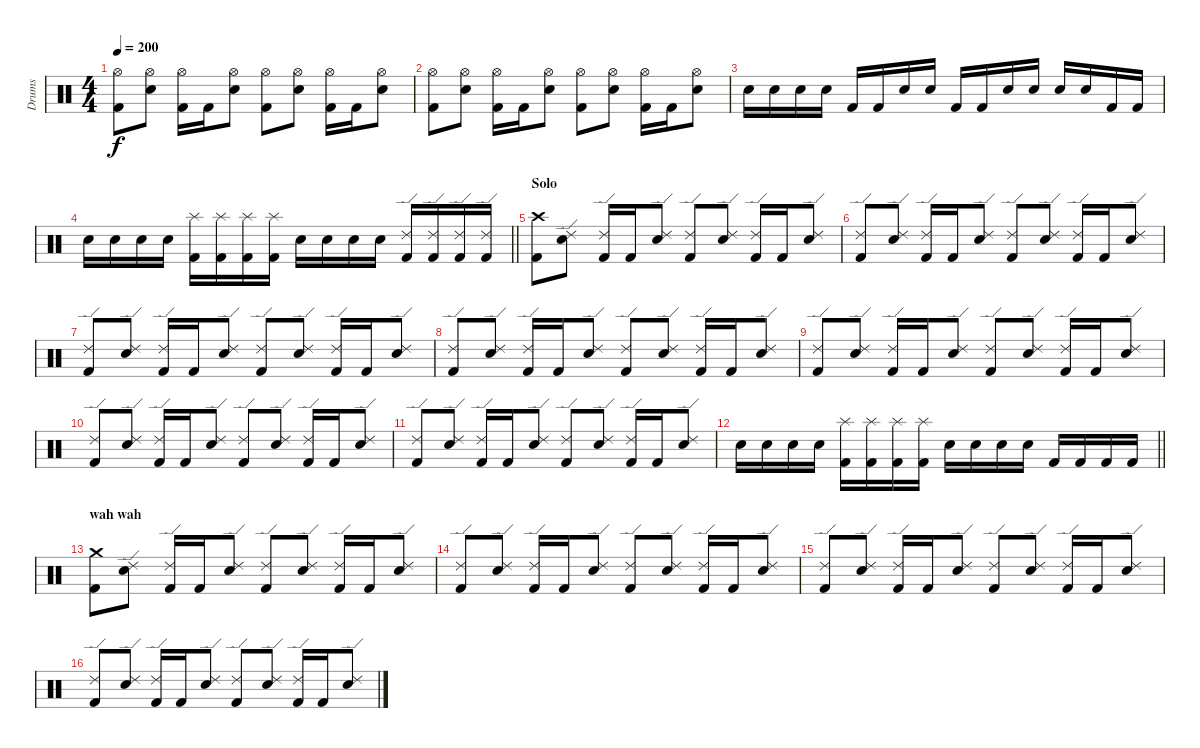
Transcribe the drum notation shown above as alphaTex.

\track ("Drums" "Drums") {instrument percussion}
\staff {score}
\articulation defaults
\ts (4 4)
\tempo 200
\clef neutral
\ks c
("Kick (hit) 2" "Hi-Hat (open)").8{dy f} ("Snare (hit) 2" "Hi-Hat (open)").8 ("Kick (hit) 2" "Hi-Hat (open)").16 "Kick (hit) 2".16 ("Snare (hit) 2" "Hi-Hat (open)").8 ("Kick (hit) 2" "Hi-Hat (open)").8 ("Snare (hit) 2" "Hi-Hat (open)").8 ("Kick (hit) 2" "Hi-Hat (open)").16 "Kick (hit) 2".16 ("Snare (hit) 2" "Hi-Hat (open)").8 |
("Kick (hit) 2" "Hi-Hat (open)").8 ("Snare (hit) 2" "Hi-Hat (open)").8 ("Kick (hit) 2" "Hi-Hat (open)").16 "Kick (hit) 2".16 ("Snare (hit) 2" "Hi-Hat (open)").8 ("Kick (hit) 2" "Hi-Hat (open)").8 ("Snare (hit) 2" "Hi-Hat (open)").8 ("Kick (hit) 2" "Hi-Hat (open)").16 "Kick (hit) 2".16 ("Snare (hit) 2" "Hi-Hat (open)").8 |
"Snare (hit) 2".16 "Snare (hit) 2".16 "Snare (hit) 2".16 "Snare (hit) 2".16 "Kick (hit) 2".16 "Kick (hit) 2".16 "Snare (hit) 2".16 "Snare (hit) 2".16 "Kick (hit) 2".16 "Kick (hit) 2".16 "Snare (hit) 2".16 "Snare (hit) 2".16 "Snare (hit) 2".16 "Snare (hit) 2".16 "Kick (hit) 2".16 "Kick (hit) 2".16 |
\barLineRight lightlight "Snare (hit) 2".16 "Snare (hit) 2".16 "Snare (hit) 2".16 "Snare (hit) 2".16
("Kick (hit) 2" "Splash (hit)").16 ("Kick (hit) 2" "Splash (hit)").16 ("Kick (hit) 2" "Splash (hit)").16 ("Kick (hit) 2" "Splash (hit)").16 "Snare (hit) 2".16 "Snare (hit) 2".16 "Snare (hit) 2".16 "Snare (hit) 2".16 ("Kick (hit) 2" "Ride (edge) 2").16 ("Kick (hit) 2" "Ride (edge) 2").16 ("Kick (hit) 2" "Ride (edge) 2").16 ("Kick (hit) 2" "Ride (edge) 2").16 |
\section ("" "Solo")
("Kick (hit) 2" "Crash high (hit)").8 ("Snare (hit) 2" "Ride (edge) 2").8 ("Kick (hit) 2" "Ride (edge) 2").16 "Kick (hit) 2".16 ("Snare (hit) 2" "Ride (edge) 2").8 ("Kick (hit) 2" "Ride (edge) 2").8 ("Snare (hit) 2" "Ride (edge) 2").8 ("Kick (hit) 2" "Ride (edge) 2").16 "Kick (hit) 2".16 ("Snare (hit) 2" "Ride (edge) 2").8 |
("Kick (hit) 2" "Ride (edge) 2").8 ("Snare (hit) 2" "Ride (edge) 2").8 ("Kick (hit) 2" "Ride (edge) 2").16 "Kick (hit) 2".16 ("Snare (hit) 2" "Ride (edge) 2").8 ("Kick (hit) 2" "Ride (edge) 2").8 ("Snare (hit) 2" "Ride (edge) 2").8 ("Kick (hit) 2" "Ride (edge) 2").16 "Kick (hit) 2".16 ("Snare (hit) 2" "Ride (edge) 2").8 |
("Kick (hit) 2" "Ride (edge) 2").8 ("Snare (hit) 2" "Ride (edge) 2").8 ("Kick (hit) 2" "Ride (edge) 2").16 "Kick (hit) 2".16 ("Snare (hit) 2" "Ride (edge) 2").8 ("Kick (hit) 2" "Ride (edge) 2").8 ("Snare (hit) 2" "Ride (edge) 2").8 ("Kick (hit) 2" "Ride (edge) 2").16 "Kick (hit) 2".16 ("Snare (hit) 2" "Ride (edge) 2").8 |
("Kick (hit) 2" "Ride (edge) 2").8 ("Snare (hit) 2" "Ride (edge) 2").8 ("Kick (hit) 2" "Ride (edge) 2").16 "Kick (hit) 2".16 ("Snare (hit) 2" "Ride (edge) 2").8 ("Kick (hit) 2" "Ride (edge) 2").8 ("Snare (hit) 2" "Ride (edge) 2").8 ("Kick (hit) 2" "Ride (edge) 2").16 "Kick (hit) 2".16 ("Snare (hit) 2" "Ride (edge) 2").8 |
("Kick (hit) 2" "Ride (edge) 2").8 ("Snare (hit) 2" "Ride (edge) 2").8 ("Kick (hit) 2" "Ride (edge) 2").16 "Kick (hit) 2".16 ("Snare (hit) 2" "Ride (edge) 2").8 ("Kick (hit) 2" "Ride (edge) 2").8 ("Snare (hit) 2" "Ride (edge) 2").8 ("Kick (hit) 2" "Ride (edge) 2").16 "Kick (hit) 2".16 ("Snare (hit) 2" "Ride (edge) 2").8 |
("Kick (hit) 2" "Ride (edge) 2").8 ("Snare (hit) 2" "Ride (edge) 2").8 ("Kick (hit) 2" "Ride (edge) 2").16 "Kick (hit) 2".16 ("Snare (hit) 2" "Ride (edge) 2").8 ("Kick (hit) 2" "Ride (edge) 2").8 ("Snare (hit) 2" "Ride (edge) 2").8 ("Kick (hit) 2" "Ride (edge) 2").16 "Kick (hit) 2".16 ("Snare (hit) 2" "Ride (edge) 2").8 |
("Kick (hit) 2" "Ride (edge) 2").8 ("Snare (hit) 2" "Ride (edge) 2").8 ("Kick (hit) 2" "Ride (edge) 2").16 "Kick (hit) 2".16 ("Snare (hit) 2" "Ride (edge) 2").8 ("Kick (hit) 2" "Ride (edge) 2").8 ("Snare (hit) 2" "Ride (edge) 2").8 ("Kick (hit) 2" "Ride (edge) 2").16 "Kick (hit) 2".16 ("Snare (hit) 2" "Ride (edge) 2").8 |
\barLineRight lightlight "Snare (hit) 2".16 "Snare (hit) 2".16 "Snare (hit) 2".16 "Snare (hit) 2".16
("Kick (hit) 2" "Splash (hit)").16 ("Kick (hit) 2" "Splash (hit)").16 ("Kick (hit) 2" "Splash (hit)").16 ("Kick (hit) 2" "Splash (hit)").16 "Snare (hit) 2".16 "Snare (hit) 2".16 "Snare (hit) 2".16 "Snare (hit) 2".16 "Kick (hit) 2".16 "Kick (hit) 2".16 "Kick (hit) 2".16 "Kick (hit) 2".16 |
\section ("" "wah wah")
("Kick (hit) 2" "Crash medium (hit)").8 ("Snare (hit) 2" "Ride (edge) 2").8 ("Kick (hit) 2" "Ride (edge) 2").16 "Kick (hit) 2".16 ("Snare (hit) 2" "Ride (edge) 2").8 ("Kick (hit) 2" "Ride (edge) 2").8 ("Snare (hit) 2" "Ride (edge) 2").8 ("Kick (hit) 2" "Ride (edge) 2").16 "Kick (hit) 2".16 ("Snare (hit) 2" "Ride (edge) 2").8 |
("Kick (hit) 2" "Ride (edge) 2").8 ("Snare (hit) 2" "Ride (edge) 2").8 ("Kick (hit) 2" "Ride (edge) 2").16 "Kick (hit) 2".16 ("Snare (hit) 2" "Ride (edge) 2").8 ("Kick (hit) 2" "Ride (edge) 2").8 ("Snare (hit) 2" "Ride (edge) 2").8 ("Kick (hit) 2" "Ride (edge) 2").16 "Kick (hit) 2".16 ("Snare (hit) 2" "Ride (edge) 2").8 |
("Kick (hit) 2" "Ride (edge) 2").8 ("Snare (hit) 2" "Ride (edge) 2").8 ("Kick (hit) 2" "Ride (edge) 2").16 "Kick (hit) 2".16 ("Snare (hit) 2" "Ride (edge) 2").8 ("Kick (hit) 2" "Ride (edge) 2").8 ("Snare (hit) 2" "Ride (edge) 2").8 ("Kick (hit) 2" "Ride (edge) 2").16 "Kick (hit) 2".16 ("Snare (hit) 2" "Ride (edge) 2").8 |
("Kick (hit) 2" "Ride (edge) 2").8 ("Snare (hit) 2" "Ride (edge) 2").8 ("Kick (hit) 2" "Ride (edge) 2").16 "Kick (hit) 2".16 ("Snare (hit) 2" "Ride (edge) 2").8 ("Kick (hit) 2" "Ride (edge) 2").8 ("Snare (hit) 2" "Ride (edge) 2").8 ("Kick (hit) 2" "Ride (edge) 2").16 "Kick (hit) 2".16 ("Snare (hit) 2" "Ride (edge) 2").8
